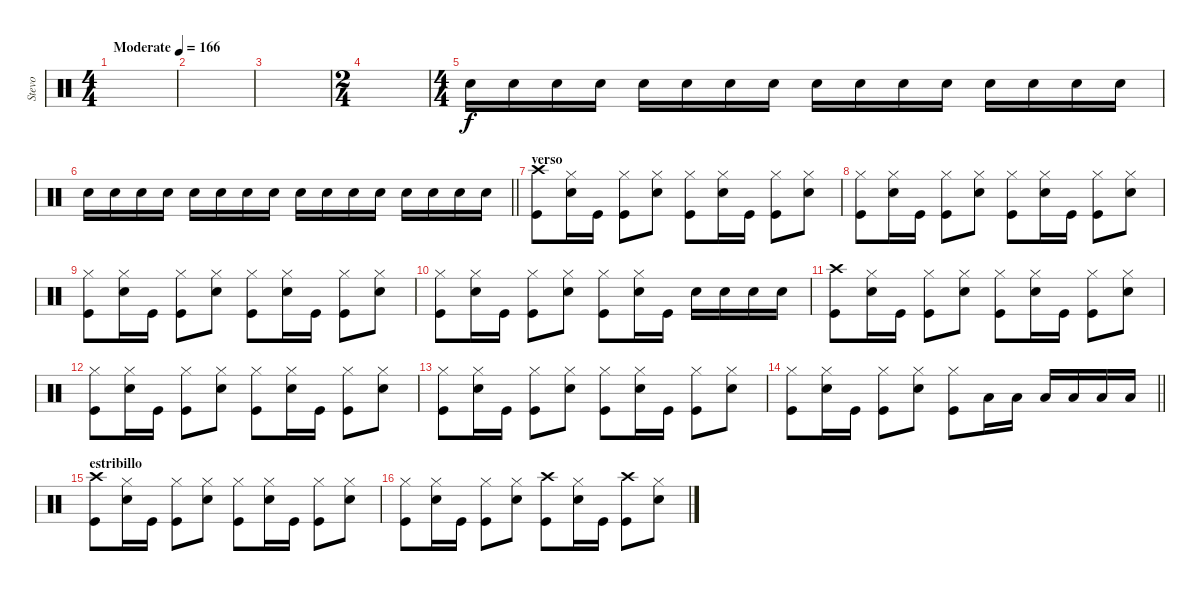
\track ("Stevo" "Stevo") {instrument percussion}
\staff {score}
\articulation defaults
\ts (4 4)
\tempo (166 "Moderate")
\clef neutral
\ks c
|
|
|
\ts (2 4)
|
\ts (4 4)
"Electric Snare (hit)".16 "Electric Snare (hit)".16 "Electric Snare (hit)".16 "Electric Snare (hit)".16 "Electric Snare (hit)".16 "Electric Snare (hit)".16 "Electric Snare (hit)".16 "Electric Snare (hit)".16 "Electric Snare (hit)".16 "Electric Snare (hit)".16 "Electric Snare (hit)".16 "Electric Snare (hit)".16 "Electric Snare (hit)".16 "Electric Snare (hit)".16 "Electric Snare (hit)".16 "Electric Snare (hit)".16 |
\barLineRight lightlight "Electric Snare (hit)".16 "Electric Snare (hit)".16 "Electric Snare (hit)".16 "Electric Snare (hit)".16 "Electric Snare (hit)".16 "Electric Snare (hit)".16 "Electric Snare (hit)".16 "Electric Snare (hit)".16 "Electric Snare (hit)".16 "Electric Snare (hit)".16 "Electric Snare (hit)".16 "Electric Snare (hit)".16 "Electric Snare (hit)".16 "Electric Snare (hit)".16 "Electric Snare (hit)".16 "Electric Snare (hit)".16
|
\section ("" "verso")
("Crash high (hit)" "Kick (hit)").8 ("Hi-Hat (closed)" "Electric Snare (hit)").16 "Kick (hit)".16 ("Hi-Hat (closed)" "Kick (hit)").8 ("Hi-Hat (closed)" "Electric Snare (hit)").8 ("Hi-Hat (closed)" "Kick (hit)").8 ("Hi-Hat (closed)" "Electric Snare (hit)").16 "Kick (hit)".16 ("Hi-Hat (closed)" "Kick (hit)").8 ("Hi-Hat (closed)" "Electric Snare (hit)").8 |
("Hi-Hat (closed)" "Kick (hit)").8 ("Hi-Hat (closed)" "Electric Snare (hit)").16 "Kick (hit)".16 ("Hi-Hat (closed)" "Kick (hit)").8 ("Hi-Hat (closed)" "Electric Snare (hit)").8 ("Hi-Hat (closed)" "Kick (hit)").8 ("Hi-Hat (closed)" "Electric Snare (hit)").16 "Kick (hit)".16 ("Hi-Hat (closed)" "Kick (hit)").8 ("Hi-Hat (closed)" "Electric Snare (hit)").8 |
("Hi-Hat (closed)" "Kick (hit)").8 ("Hi-Hat (closed)" "Electric Snare (hit)").16 "Kick (hit)".16 ("Hi-Hat (closed)" "Kick (hit)").8 ("Hi-Hat (closed)" "Electric Snare (hit)").8 ("Hi-Hat (closed)" "Kick (hit)").8 ("Hi-Hat (closed)" "Electric Snare (hit)").16 "Kick (hit)".16 ("Hi-Hat (closed)" "Kick (hit)").8 ("Hi-Hat (closed)" "Electric Snare (hit)").8 |
("Hi-Hat (closed)" "Kick (hit)").8 ("Hi-Hat (closed)" "Electric Snare (hit)").16 "Kick (hit)".16 ("Hi-Hat (closed)" "Kick (hit)").8 ("Hi-Hat (closed)" "Electric Snare (hit)").8 ("Hi-Hat (closed)" "Kick (hit)").8 ("Hi-Hat (closed)" "Electric Snare (hit)").16 "Kick (hit)".16 "Electric Snare (hit)".16 "Electric Snare (hit)".16 "Electric Snare (hit)".16 "Electric Snare (hit)".16 |
("Crash high (hit)" "Kick (hit)").8 ("Hi-Hat (closed)" "Electric Snare (hit)").16 "Kick (hit)".16 ("Hi-Hat (closed)" "Kick (hit)").8 ("Hi-Hat (closed)" "Electric Snare (hit)").8 ("Hi-Hat (closed)" "Kick (hit)").8 ("Hi-Hat (closed)" "Electric Snare (hit)").16 "Kick (hit)".16 ("Hi-Hat (closed)" "Kick (hit)").8 ("Hi-Hat (closed)" "Electric Snare (hit)").8 |
("Hi-Hat (closed)" "Kick (hit)").8 ("Hi-Hat (closed)" "Electric Snare (hit)").16 "Kick (hit)".16 ("Hi-Hat (closed)" "Kick (hit)").8 ("Hi-Hat (closed)" "Electric Snare (hit)").8 ("Hi-Hat (closed)" "Kick (hit)").8 ("Hi-Hat (closed)" "Electric Snare (hit)").16 "Kick (hit)".16 ("Hi-Hat (closed)" "Kick (hit)").8 ("Hi-Hat (closed)" "Electric Snare (hit)").8 |
("Hi-Hat (closed)" "Kick (hit)").8 ("Hi-Hat (closed)" "Electric Snare (hit)").16 "Kick (hit)".16 ("Hi-Hat (closed)" "Kick (hit)").8 ("Hi-Hat (closed)" "Electric Snare (hit)").8 ("Hi-Hat (closed)" "Kick (hit)").8 ("Hi-Hat (closed)" "Electric Snare (hit)").16 "Kick (hit)".16 ("Hi-Hat (closed)" "Kick (hit)").8 ("Hi-Hat (closed)" "Electric Snare (hit)").8 |
\barLineRight lightlight
("Hi-Hat (closed)" "Kick (hit)").8 ("Hi-Hat (closed)" "Electric Snare (hit)").16 "Kick (hit)".16 ("Hi-Hat (closed)" "Kick (hit)").8 ("Hi-Hat (closed)" "Electric Snare (hit)").8 ("Hi-Hat (closed)" "Kick (hit)").8 "Low Floor Tom (hit)".16 "Low Floor Tom (hit)".16 "Low Floor Tom (hit)".16 "Low Tom (hit)".16 "Low Tom (hit)".16 "Low Floor Tom (hit)".16 |
\section ("" "estribillo")
("Crash high (hit)" "Kick (hit)").8 ("Hi-Hat (closed)" "Electric Snare (hit)").16 "Kick (hit)".16 ("Hi-Hat (closed)" "Kick (hit)").8 ("Hi-Hat (closed)" "Electric Snare (hit)").8 ("Hi-Hat (closed)" "Kick (hit)").8 ("Hi-Hat (closed)" "Electric Snare (hit)").16 "Kick (hit)".16 ("Hi-Hat (closed)" "Kick (hit)").8 ("Hi-Hat (closed)" "Electric Snare (hit)").8 |
("Hi-Hat (closed)" "Kick (hit)").8 ("Hi-Hat (closed)" "Electric Snare (hit)").16 "Kick (hit)".16 ("Hi-Hat (closed)" "Kick (hit)").8 ("Hi-Hat (closed)" "Electric Snare (hit)").8 ("Crash high (hit)" "Kick (hit)").8 ("Hi-Hat (closed)" "Electric Snare (hit)").16 "Kick (hit)".16 ("Crash high (hit)" "Kick (hit)").8 ("Hi-Hat (closed)" "Electric Snare (hit)").8
